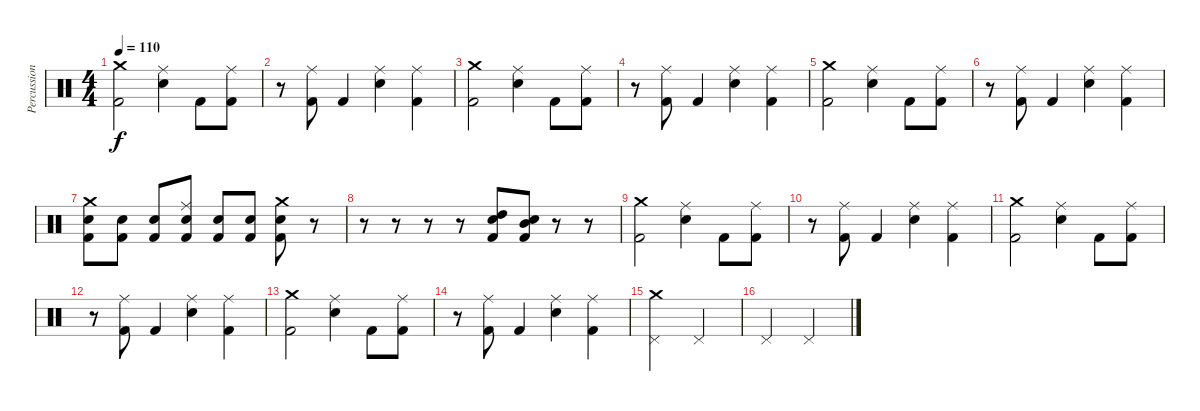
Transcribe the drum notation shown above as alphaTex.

\track ("Percussion" "Percussion") {instrument percussion}
\staff {score}
\articulation defaults
\ts (4 4)
\tempo 110
\clef neutral
\ks c
("Crash medium (hit)" "Kick (hit) 2").2{dy f} ("Ride (middle)" "Electric Snare (hit)").4 "Kick (hit) 2".8 ("Ride (middle)" "Kick (hit) 2").8 |
r.8 ("Ride (middle)" "Kick (hit) 2").8 "Kick (hit) 2".4 ("Ride (middle)" "Electric Snare (hit)").4 ("Ride (middle)" "Kick (hit) 2").4 |
("Crash medium (hit)" "Kick (hit) 2").2 ("Ride (middle)" "Electric Snare (hit)").4 "Kick (hit) 2".8 ("Ride (middle)" "Kick (hit) 2").8 |
r.8 ("Ride (middle)" "Kick (hit) 2").8 "Kick (hit) 2".4 ("Ride (middle)" "Electric Snare (hit)").4 ("Ride (middle)" "Kick (hit) 2").4 |
("Crash medium (hit)" "Kick (hit) 2").2 ("Ride (middle)" "Electric Snare (hit)").4 "Kick (hit) 2".8 ("Ride (middle)" "Kick (hit) 2").8 |
r.8 ("Ride (middle)" "Kick (hit) 2").8 "Kick (hit) 2".4 ("Ride (middle)" "Electric Snare (hit)").4 ("Ride (middle)" "Kick (hit) 2").4 |
("Crash medium (hit)" "Electric Snare (hit)" "Kick (hit) 2").8 ("Kick (hit) 2" "Electric Snare (hit)").8 ("Electric Snare (hit)" "Kick (hit) 2").8 ("Ride (middle)" "Electric Snare (hit)" "Kick (hit) 2").8 ("Electric Snare (hit)" "Kick (hit) 2").8 ("Electric Snare (hit)" "Kick (hit) 2").8 ("Crash medium (hit)" "Electric Snare (hit)" "Kick (hit) 2").8 r.8 |
r.8 r.8 r.8 r.8 ("Electric Snare (hit)" "High Tom (hit)" "Kick (hit) 2").8{bd 60} ("Electric Snare (hit)" "Mid Tom (hit)" "Kick (hit) 2").8{bd 60} r.8 r.8 |
("Crash medium (hit)" "Kick (hit) 2").2 ("Ride (middle)" "Electric Snare (hit)").4 "Kick (hit) 2".8 ("Ride (middle)" "Kick (hit) 2").8 |
r.8 ("Ride (middle)" "Kick (hit) 2").8 "Kick (hit) 2".4 ("Ride (middle)" "Electric Snare (hit)").4 ("Ride (middle)" "Kick (hit) 2").4 |
("Crash medium (hit)" "Kick (hit) 2").2 ("Ride (middle)" "Electric Snare (hit)").4 "Kick (hit) 2".8 ("Ride (middle)" "Kick (hit) 2").8 |
r.8 ("Ride (middle)" "Kick (hit) 2").8 "Kick (hit) 2".4 ("Ride (middle)" "Electric Snare (hit)").4 ("Ride (middle)" "Kick (hit) 2").4 |
("Crash medium (hit)" "Kick (hit) 2").2 ("Ride (middle)" "Electric Snare (hit)").4 "Kick (hit) 2".8 ("Ride (middle)" "Kick (hit) 2").8 |
r.8 ("Ride (middle)" "Kick (hit) 2").8 "Kick (hit) 2".4 ("Ride (middle)" "Electric Snare (hit)").4 ("Ride (middle)" "Kick (hit) 2").4 |
("Pedal Hi-Hat (hit)" "Crash medium (hit)").2 "Pedal Hi-Hat (hit)".2 |
"Pedal Hi-Hat (hit)".2 "Pedal Hi-Hat (hit)".2
